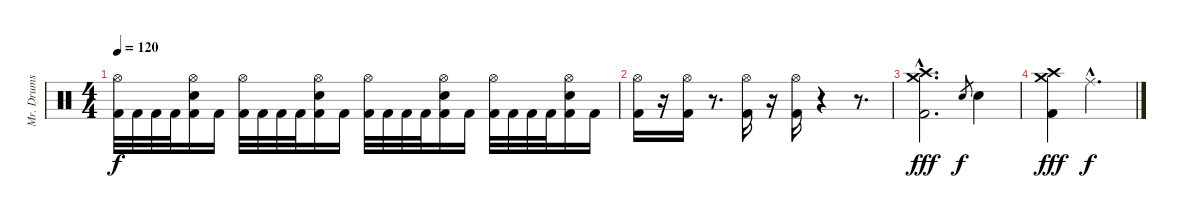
\track ("Mr. Drums" "Mr. Drums") {instrument percussion}
\staff {score}
\articulation defaults
\ts (4 4)
\tempo 120
\clef neutral
\ks c
("Hi-Hat (open)" "Kick (hit) 2").32{dy f} "Kick (hit) 2".32 "Kick (hit) 2".32 "Kick (hit) 2".32 ("Hi-Hat (open)" "Electric Snare (hit)" "Kick (hit) 2").16 "Kick (hit) 2".16 ("Hi-Hat (open)" "Kick (hit) 2").32 "Kick (hit) 2".32 "Kick (hit) 2".32 "Kick (hit) 2".32 ("Hi-Hat (open)" "Electric Snare (hit)" "Kick (hit) 2").16 "Kick (hit) 2".16 ("Hi-Hat (open)" "Kick (hit) 2").32 "Kick (hit) 2".32 "Kick (hit) 2".32 "Kick (hit) 2".32 ("Hi-Hat (open)" "Electric Snare (hit)" "Kick (hit) 2").16 "Kick (hit) 2".16 ("Hi-Hat (open)" "Kick (hit) 2").32 "Kick (hit) 2".32 "Kick (hit) 2".32 "Kick (hit) 2".32 ("Hi-Hat (open)" "Electric Snare (hit)" "Kick (hit) 2").16 "Kick (hit) 2".16 |
("Hi-Hat (open)" "Kick (hit) 2").16 r.16 ("Hi-Hat (open)" "Kick (hit) 2").16 r.8{d} ("Hi-Hat (open)" "Kick (hit) 2").16 r.16 ("Hi-Hat (open)" "Kick (hit) 2").16 r.4 r.8{d} |
("Crash medium (hit)"{hac} "Crash high (hit)"{hac} "Kick (hit) 2"{hac}).2{d dy fff} "Electric Snare (hit)".8{gr dy f} "Electric Snare (hit)".4 |
("Crash high (hit)" "Crash medium (hit)" "Kick (hit) 2").4{dy fff} "Ride (middle)"{hac}.2{d dy f}
